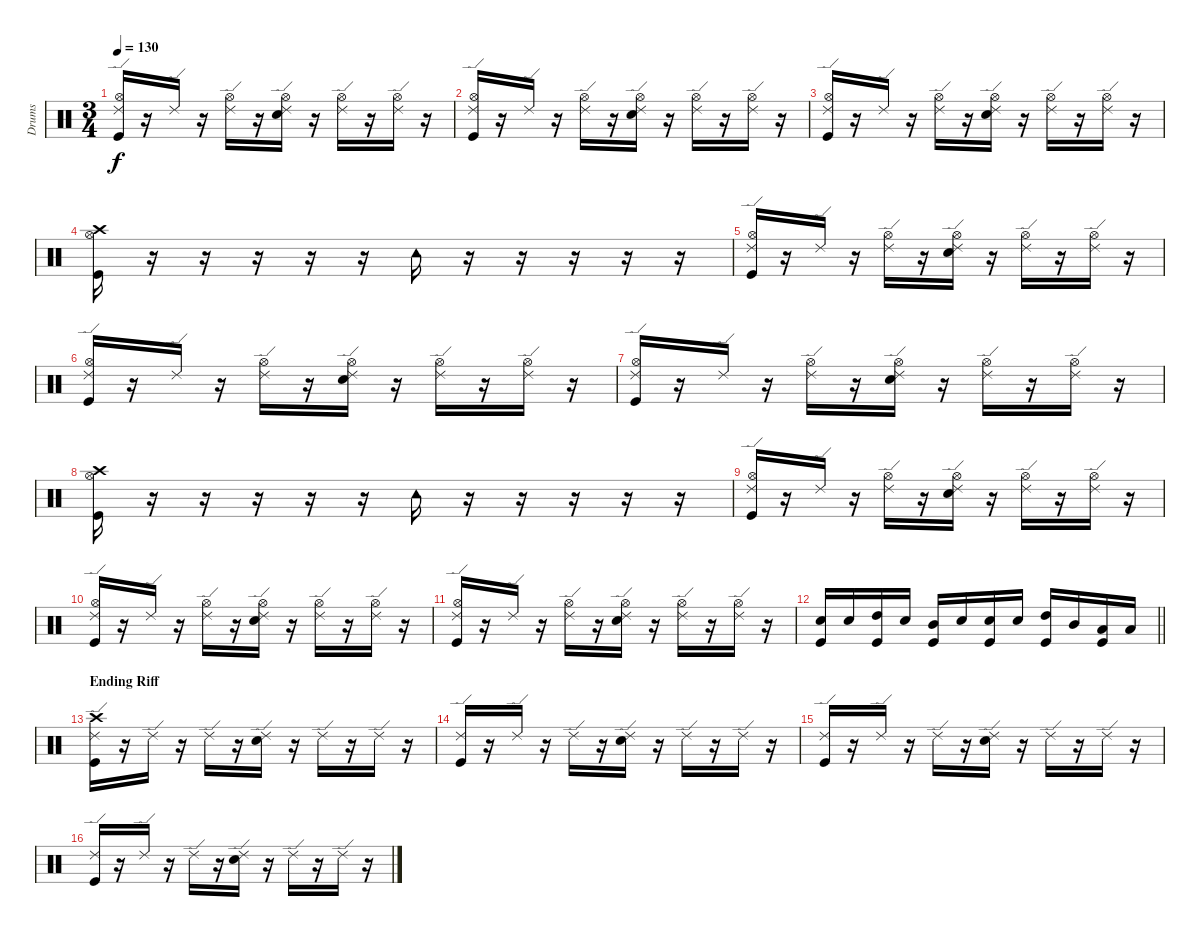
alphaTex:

\track ("Drums" "Drums") {instrument percussion}
\staff {score}
\articulation defaults
\ts (3 4)
\tempo 130
\clef neutral
\ks c
("Ride (edge) 2" "Hi-Hat (open)" "Kick (hit)").16{dy f} r.16 "Ride (edge) 2".16 r.16 ("Ride (edge) 2" "Hi-Hat (open)").16 r.16 ("Ride (edge) 2" "Hi-Hat (open)" "Electric Snare (hit)").16 r.16 ("Ride (edge) 2" "Hi-Hat (open)").16 r.16 ("Ride (edge) 2" "Hi-Hat (open)").16 r.16 |
("Ride (edge) 2" "Hi-Hat (open)" "Kick (hit)").16 r.16 "Ride (edge) 2".16 r.16 ("Ride (edge) 2" "Hi-Hat (open)").16 r.16 ("Ride (edge) 2" "Hi-Hat (open)" "Electric Snare (hit)").16 r.16 ("Ride (edge) 2" "Hi-Hat (open)").16 r.16 ("Ride (edge) 2" "Hi-Hat (open)").16 r.16 |
("Ride (edge) 2" "Hi-Hat (open)" "Kick (hit)").16 r.16 "Ride (edge) 2".16 r.16 ("Ride (edge) 2" "Hi-Hat (open)").16 r.16 ("Ride (edge) 2" "Hi-Hat (open)" "Electric Snare (hit)").16 r.16 ("Ride (edge) 2" "Hi-Hat (open)").16 r.16 ("Ride (edge) 2" "Hi-Hat (open)").16 r.16 |
("Crash high (hit)" "Hi-Hat (open)" "Kick (hit)").16 r.16 r.16 r.16 r.16 r.16 "Tambourine (hit)".16 r.16 r.16 r.16 r.16 r.16 |
("Ride (edge) 2" "Hi-Hat (open)" "Kick (hit)").16 r.16 "Ride (edge) 2".16 r.16 ("Ride (edge) 2" "Hi-Hat (open)").16 r.16 ("Ride (edge) 2" "Hi-Hat (open)" "Electric Snare (hit)").16 r.16 ("Ride (edge) 2" "Hi-Hat (open)").16 r.16 ("Ride (edge) 2" "Hi-Hat (open)").16 r.16 |
("Ride (edge) 2" "Hi-Hat (open)" "Kick (hit)").16 r.16 "Ride (edge) 2".16 r.16 ("Ride (edge) 2" "Hi-Hat (open)").16 r.16 ("Ride (edge) 2" "Hi-Hat (open)" "Electric Snare (hit)").16 r.16 ("Ride (edge) 2" "Hi-Hat (open)").16 r.16 ("Ride (edge) 2" "Hi-Hat (open)").16 r.16 |
("Ride (edge) 2" "Hi-Hat (open)" "Kick (hit)").16 r.16 "Ride (edge) 2".16 r.16 ("Ride (edge) 2" "Hi-Hat (open)").16 r.16 ("Ride (edge) 2" "Hi-Hat (open)" "Electric Snare (hit)").16 r.16 ("Ride (edge) 2" "Hi-Hat (open)").16 r.16 ("Ride (edge) 2" "Hi-Hat (open)").16 r.16 |
("Crash high (hit)" "Hi-Hat (open)" "Kick (hit)").16 r.16 r.16 r.16 r.16 r.16 "Tambourine (hit)".16 r.16 r.16 r.16 r.16 r.16 |
("Ride (edge) 2" "Hi-Hat (open)" "Kick (hit)").16 r.16 "Ride (edge) 2".16 r.16 ("Ride (edge) 2" "Hi-Hat (open)").16 r.16 ("Ride (edge) 2" "Hi-Hat (open)" "Electric Snare (hit)").16 r.16 ("Ride (edge) 2" "Hi-Hat (open)").16 r.16 ("Ride (edge) 2" "Hi-Hat (open)").16 r.16 |
("Ride (edge) 2" "Hi-Hat (open)" "Kick (hit)").16 r.16 "Ride (edge) 2".16 r.16 ("Ride (edge) 2" "Hi-Hat (open)").16 r.16 ("Ride (edge) 2" "Hi-Hat (open)" "Electric Snare (hit)").16 r.16 ("Ride (edge) 2" "Hi-Hat (open)").16 r.16 ("Ride (edge) 2" "Hi-Hat (open)").16 r.16 |
("Ride (edge) 2" "Hi-Hat (open)" "Kick (hit)").16 r.16 "Ride (edge) 2".16 r.16 ("Ride (edge) 2" "Hi-Hat (open)").16 r.16 ("Ride (edge) 2" "Hi-Hat (open)" "Electric Snare (hit)").16 r.16 ("Ride (edge) 2" "Hi-Hat (open)").16 r.16 ("Ride (edge) 2" "Hi-Hat (open)").16 r.16 |
\barLineRight lightlight
("Electric Snare (hit)" "Kick (hit)").16 "Electric Snare (hit)".16 ("High Tom (hit)" "Kick (hit)").16 "Electric Snare (hit)".16 ("Mid Tom (hit)" "Kick (hit)").16 "Electric Snare (hit)".16 ("Electric Snare (hit)" "Kick (hit)").16 "Electric Snare (hit)".16 ("High Tom (hit)" "Kick (hit)").16 "Mid Tom (hit)".16 ("Low Tom (hit)" "Kick (hit)").16 "Low Floor Tom (hit)".16 |
\section ("" "Ending Riff")
("Crash high (hit)" "Ride (edge) 2" "Kick (hit)").16 r.16 "Ride (edge) 2".16 r.16 "Ride (edge) 2".16 r.16 ("Ride (edge) 2" "Electric Snare (hit)").16 r.16 "Ride (edge) 2".16 r.16 "Ride (edge) 2".16 r.16 |
("Ride (edge) 2" "Kick (hit)").16 r.16 "Ride (edge) 2".16 r.16 "Ride (edge) 2".16 r.16 ("Ride (edge) 2" "Electric Snare (hit)").16 r.16 "Ride (edge) 2".16 r.16 "Ride (edge) 2".16 r.16 |
("Ride (edge) 2" "Kick (hit)").16 r.16 "Ride (edge) 2".16 r.16 "Ride (edge) 2".16 r.16 ("Ride (edge) 2" "Electric Snare (hit)").16 r.16 "Ride (edge) 2".16 r.16 "Ride (edge) 2".16 r.16 |
("Ride (edge) 2" "Kick (hit)").16 r.16 "Ride (edge) 2".16 r.16 "Ride (edge) 2".16 r.16 ("Ride (edge) 2" "Electric Snare (hit)").16 r.16 "Ride (edge) 2".16 r.16 "Ride (edge) 2".16 r.16
